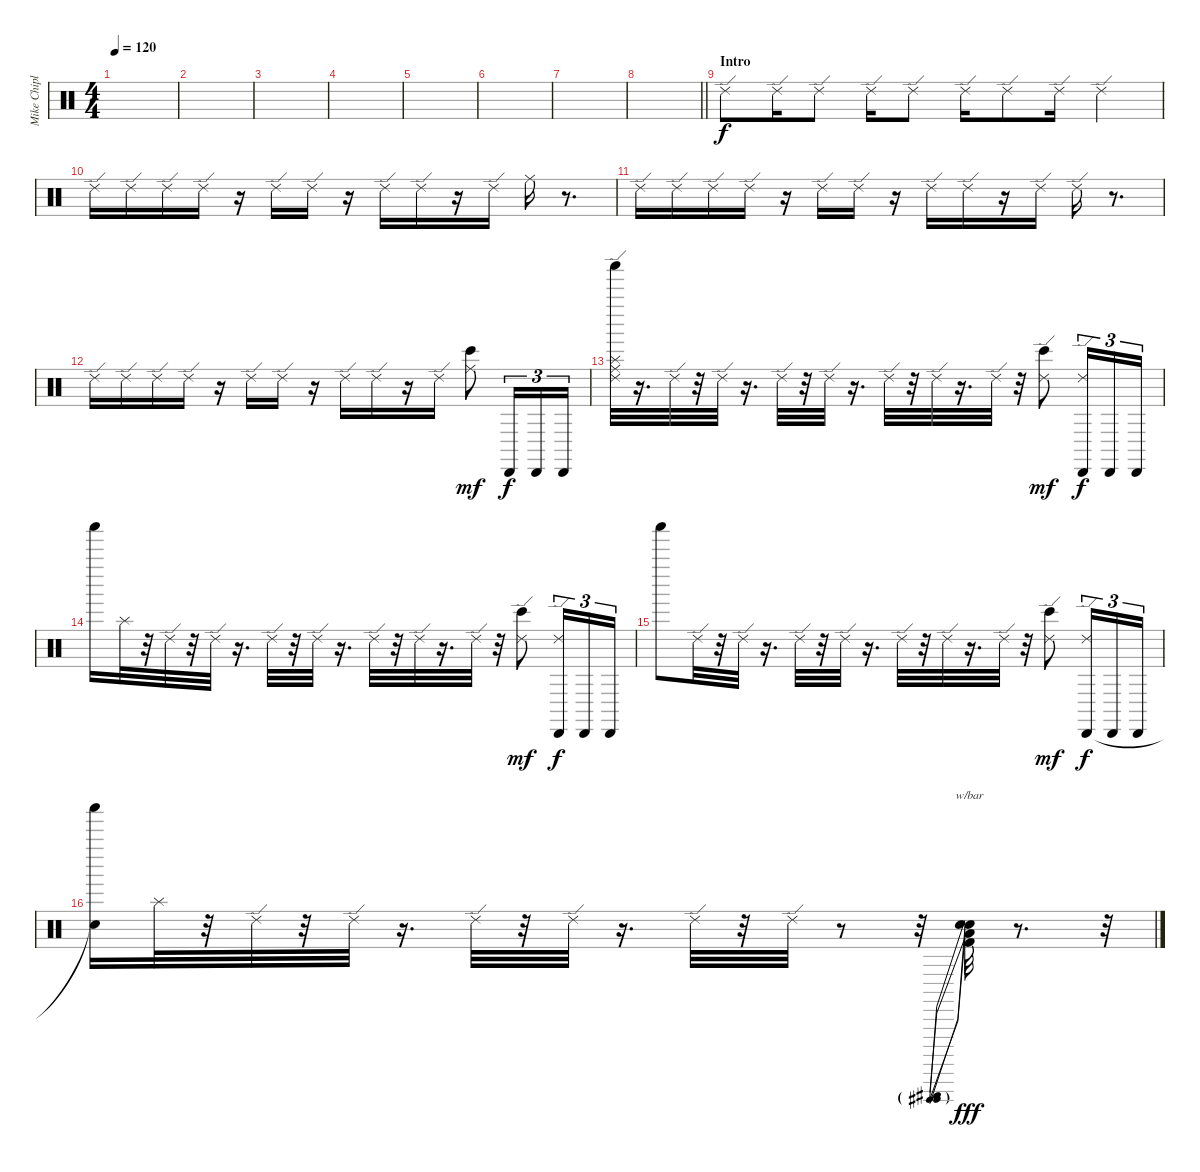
\track ("Mike Chiplin - Drums" "Mike Chipl") {instrument percussion}
\staff {score}
\articulation defaults
\ts (4 4)
\tempo 120
\clef neutral
\ks c
|
|
|
|
|
|
|
\barLineRight lightlight
|
\section ("" "Intro")
"Ride (edge) 2".8 "Ride (edge) 2".16 "Ride (edge) 2".8 "Ride (edge) 2".16 "Ride (edge) 2".8 "Ride (edge) 2".16 "Ride (edge) 2".8 "Ride (edge) 2".16 "Ride (edge) 2".4 |
"Ride (edge) 2".16 "Ride (edge) 2".16 "Ride (edge) 2".16 "Ride (edge) 2".16 r.16 "Ride (edge) 2".16 "Ride (edge) 2".16 r.16 "Ride (edge) 2".16 "Ride (edge) 2".16 r.16 "Ride (edge) 2".16 "Ride (middle)".16 r.8{d} |
"Ride (edge) 2".16 "Ride (edge) 2".16 "Ride (edge) 2".16 "Ride (edge) 2".16 r.16 "Ride (edge) 2".16 "Ride (edge) 2".16 r.16 "Ride (edge) 2".16 "Ride (edge) 2".16 r.16 "Ride (edge) 2".16 "Ride (edge) 2".16 r.8{d} |
"Ride (edge) 2".16 "Ride (edge) 2".16 "Ride (edge) 2".16 "Ride (edge) 2".16 r.16 "Ride (edge) 2".16 "Ride (edge) 2".16 r.16 "Ride (edge) 2".16 "Ride (edge) 2".16 r.16 "Ride (edge) 2".16 ("Ride (middle)" "Bongo High (hit)").8{dy mf} "Cabasa (hit)".16{tu (3 2) dy f} "Cabasa (hit)".16{tu (3 2)} "Cabasa (hit)".16{tu (3 2)} |
("Splash (hit)" "Ride (edge) 2" "Ride (middle)" "Shaker (hit)").32 r.16{d} "Ride (edge) 2".32 r.32 "Ride (edge) 2".32 r.16{d} "Ride (edge) 2".32 r.32 "Ride (edge) 2".32 r.16{d} "Ride (edge) 2".32 r.32 "Ride (edge) 2".32 r.16{d} "Ride (edge) 2".32 r.32 ("Ride (edge) 2" "Bongo High (hit)").8{dy mf} ("Ride (edge) 2" "Cabasa (hit)").16{tu (3 2) dy f} "Cabasa (hit)".16{tu (3 2)} "Cabasa (hit)".16{tu (3 2)} |
"Shaker (hit)".16 "Splash (hit)".32 r.32 "Ride (edge) 2".32 r.32 "Ride (edge) 2".32 r.16{d} "Ride (edge) 2".32 r.32 "Ride (edge) 2".32 r.16{d} "Ride (edge) 2".32 r.32 "Ride (edge) 2".32 r.16{d} "Ride (edge) 2".32 r.32 ("Ride (edge) 2" "Bongo High (hit)").8{dy mf} ("Ride (edge) 2" "Cabasa (hit)").16{tu (3 2) dy f} "Cabasa (hit)".16{tu (3 2)} "Cabasa (hit)".16{tu (3 2)} |
"Shaker (hit)".8 "Ride (edge) 2".32 r.32 "Ride (edge) 2".32 r.16{d} "Ride (edge) 2".32 r.32 "Ride (edge) 2".32 r.16{d} "Ride (edge) 2".32 r.32 "Ride (edge) 2".32 r.16{d} "Ride (edge) 2".32 r.32 ("Ride (edge) 2" "Bongo High (hit)").8{dy mf} ("Ride (edge) 2" "Cabasa (hit)").16{tu (3 2) dy f} "Cabasa (hit)".16{tu (3 2)} "Cabasa (hit)".16{tu (3 2)} |
("Shaker (hit)" "Snare (hit)"{t}).16 "Splash (hit)".32 r.32 "Ride (edge) 2".32 r.32 "Ride (edge) 2".32 r.16{d} "Ride (edge) 2".32 r.32 "Ride (edge) 2".32 r.16{d} "Ride (edge) 2".32 r.32 "Ride (edge) 2".32 r.8 r.32 ("Kick (hit) 2" "Snare (hit) 2" "Low Tom (hit)" "Snare (hit)").32{tbe (predive default 0 -4 60 -4) dy fff} r.8{d} r.32
